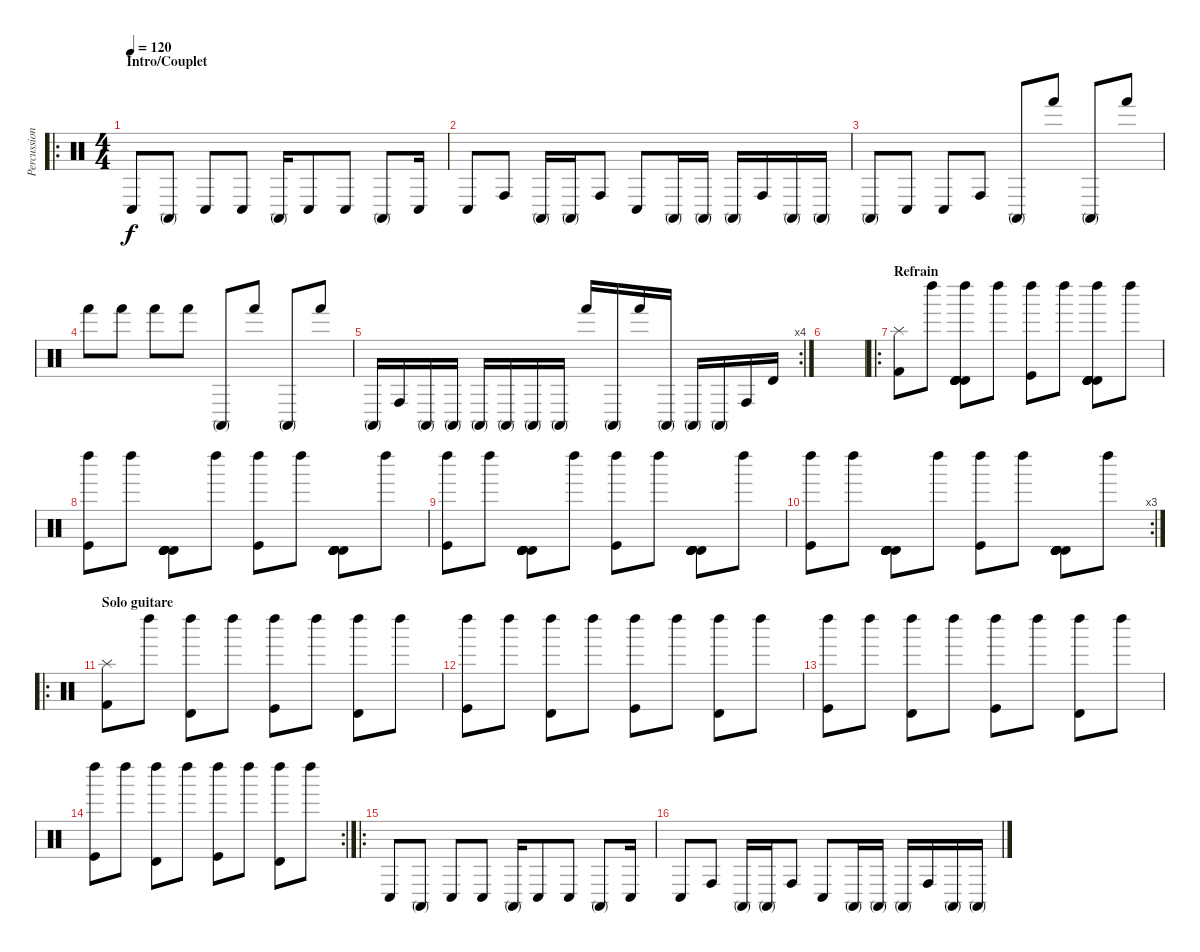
\track ("Percussions" "Percussion") {instrument percussion}
\staff {score}
\articulation defaults
\ro
\ts (4 4)
\section ("" "Intro/Couplet")
\tempo 120
\clef neutral
\ks c "Conga low (hit)".8{dy f} "Conga high (mute)".8 "Conga low (hit)".8 "Conga low (hit)".8 "Conga high (mute)".16 "Conga low (hit)".8 "Conga low (hit)".8 "Conga high (mute)".8 "Conga low (hit)".16
|
"Conga low (hit)".8 "Conga high (hit)".8 "Conga high (mute)".16 "Conga high (mute)".16 "Conga high (hit)".8 "Conga low (hit)".8 "Conga high (mute)".16 "Conga high (mute)".16 "Conga high (mute)".16 "Conga high (hit)".16 "Conga high (mute)".16 "Conga high (mute)".16 |
"Conga high (mute)".8 "Conga low (hit)".8 "Conga low (hit)".8 "Conga high (hit)".8 "Conga high (mute)".8 "Hand (hit)".8 "Conga high (mute)".8 "Hand (hit)".8 |
"Hand (hit)".8 "Hand (hit)".8 "Hand (hit)".8 "Hand (hit)".8 "Conga high (mute)".8 "Hand (hit)".8 "Conga high (mute)".8 "Hand (hit)".8 |
\rc 4 "Conga high (mute)".16 "Conga high (hit)".16 "Conga high (mute)".16 "Conga high (mute)".16 "Conga high (mute)".16 "Conga high (mute)".16 "Conga high (mute)".16 "Conga high (mute)".16 "Hand (hit)".16 "Conga high (mute)".16 "Hand (hit)".16 "Conga high (mute)".16 "Conga high (mute)".16 "Conga high (mute)".16 "Conga high (hit)".16 "Timbale high (hit)".16
|
|
\ro
\section ("" "Refrain")
("Splash (hit)" "Kick (hit) 2").8 "Left Maraca (hit)".8 ("Left Maraca (hit)" "Timbale high (hit)" "Timbale high (hit)" "Timbale high (hit)" "Timbale high (hit)" "Timbale high (hit)").8 "Left Maraca (hit)".8 ("Left Maraca (hit)" "Kick (hit)").8 "Left Maraca (hit)".8 ("Left Maraca (hit)" "Timbale high (hit)" "Timbale high (hit)" "Timbale high (hit)" "Timbale high (hit)" "Timbale high (hit)").8 "Left Maraca (hit)".8 |
("Left Maraca (hit)" "Kick (hit)").8 "Left Maraca (hit)".8 ("Timbale high (hit)" "Timbale high (hit)" "Timbale high (hit)" "Timbale high (hit)" "Timbale high (hit)" "Timbale high (hit)").8 "Left Maraca (hit)".8 ("Left Maraca (hit)" "Kick (hit)").8 "Left Maraca (hit)".8 ("Timbale high (hit)" "Timbale high (hit)" "Timbale high (hit)" "Timbale high (hit)" "Timbale high (hit)" "Timbale high (hit)").8 "Left Maraca (hit)".8 |
("Left Maraca (hit)" "Kick (hit)").8 "Left Maraca (hit)".8 ("Timbale high (hit)" "Timbale high (hit)" "Timbale high (hit)" "Timbale high (hit)" "Timbale high (hit)" "Timbale high (hit)").8 "Left Maraca (hit)".8 ("Left Maraca (hit)" "Kick (hit)").8 "Left Maraca (hit)".8 ("Timbale high (hit)" "Timbale high (hit)" "Timbale high (hit)" "Timbale high (hit)" "Timbale high (hit)" "Timbale high (hit)").8 "Left Maraca (hit)".8 |
\rc 3
("Left Maraca (hit)" "Kick (hit)").8 "Left Maraca (hit)".8 ("Timbale high (hit)" "Timbale high (hit)" "Timbale high (hit)" "Timbale high (hit)" "Timbale high (hit)" "Timbale high (hit)").8 "Left Maraca (hit)".8 ("Left Maraca (hit)" "Kick (hit)").8 "Left Maraca (hit)".8 ("Timbale high (hit)" "Timbale high (hit)" "Timbale high (hit)" "Timbale high (hit)" "Timbale high (hit)" "Timbale high (hit)").8 "Left Maraca (hit)".8 |
\ro
\section ("" "Solo guitare")
("Splash (hit)" "Kick (hit) 2").8 "Left Maraca (hit)".8 ("Left Maraca (hit)" "Timbale high (hit)").8 "Left Maraca (hit)".8 ("Left Maraca (hit)" "Kick (hit)").8 "Left Maraca (hit)".8 ("Left Maraca (hit)" "Timbale high (hit)").8 "Left Maraca (hit)".8 |
("Left Maraca (hit)" "Kick (hit)").8 "Left Maraca (hit)".8 ("Left Maraca (hit)" "Timbale high (hit)").8 "Left Maraca (hit)".8 ("Left Maraca (hit)" "Kick (hit)").8 "Left Maraca (hit)".8 ("Left Maraca (hit)" "Timbale high (hit)").8 "Left Maraca (hit)".8 |
("Left Maraca (hit)" "Kick (hit)").8 "Left Maraca (hit)".8 ("Left Maraca (hit)" "Timbale high (hit)").8 "Left Maraca (hit)".8 ("Left Maraca (hit)" "Kick (hit)").8 "Left Maraca (hit)".8 ("Left Maraca (hit)" "Timbale high (hit)").8 "Left Maraca (hit)".8 |
\rc 2
("Left Maraca (hit)" "Kick (hit)").8 "Left Maraca (hit)".8 ("Left Maraca (hit)" "Timbale high (hit)").8 "Left Maraca (hit)".8 ("Left Maraca (hit)" "Kick (hit)").8 "Left Maraca (hit)".8 ("Left Maraca (hit)" "Timbale high (hit)").8 "Left Maraca (hit)".8 |
\ro "Conga low (hit)".8 "Conga high (mute)".8 "Conga low (hit)".8 "Conga low (hit)".8 "Conga high (mute)".16 "Conga low (hit)".8 "Conga low (hit)".8 "Conga high (mute)".8 "Conga low (hit)".16
|
"Conga low (hit)".8 "Conga high (hit)".8 "Conga high (mute)".16 "Conga high (mute)".16 "Conga high (hit)".8 "Conga low (hit)".8 "Conga high (mute)".16 "Conga high (mute)".16 "Conga high (mute)".16 "Conga high (hit)".16 "Conga high (mute)".16 "Conga high (mute)".16
